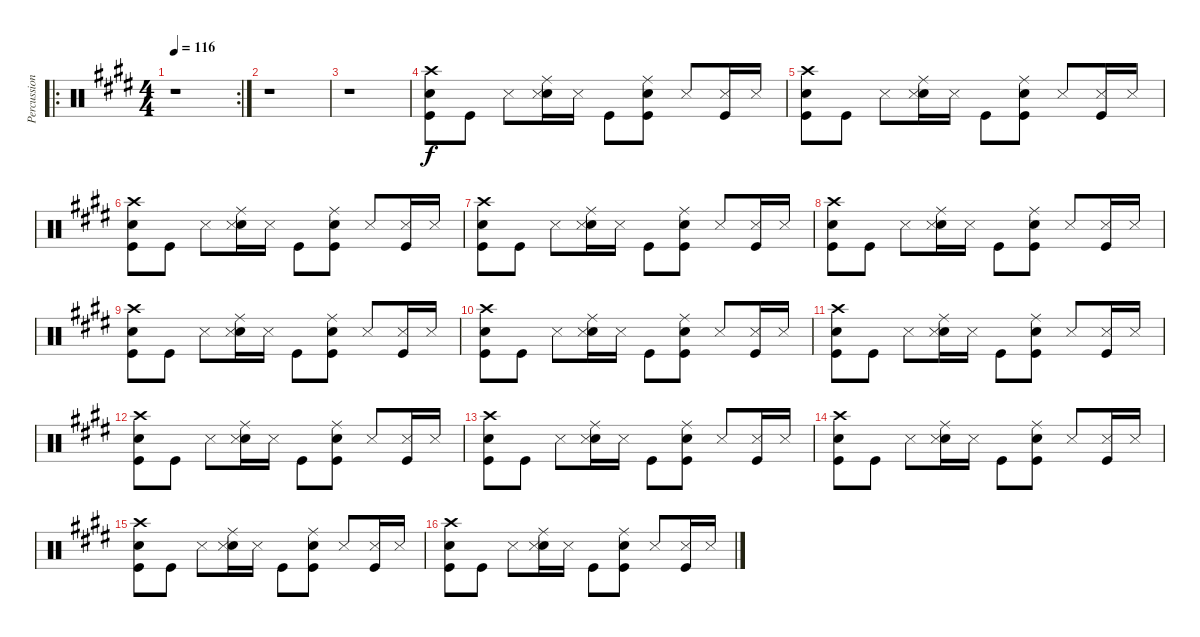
\track ("Percussion" "Percussion") {instrument percussion}
\staff {score}
\articulation defaults
\ro
\rc 2
\ts (4 4)
\tempo 116
\clef neutral
\ks e
r.1{dy f} |
r.1 |
r.1 |
("Crash high (hit)" "Electric Snare (hit)" "Kick (hit)").8 "Kick (hit)".8 "Snare (side stick) 3".8 ("Ride (middle)" "Electric Snare (hit)" "Snare (side stick) 3").16 "Snare (side stick) 3".16 "Kick (hit)".8 ("Ride (middle)" "Electric Snare (hit)" "Kick (hit)").8 "Snare (side stick) 3".8 ("Snare (side stick) 3" "Kick (hit)").16 "Snare (side stick) 3".16 |
("Crash high (hit)" "Electric Snare (hit)" "Kick (hit)").8 "Kick (hit)".8 "Snare (side stick) 3".8 ("Ride (middle)" "Electric Snare (hit)" "Snare (side stick) 3").16 "Snare (side stick) 3".16 "Kick (hit)".8 ("Ride (middle)" "Electric Snare (hit)" "Kick (hit)").8 "Snare (side stick) 3".8 ("Snare (side stick) 3" "Kick (hit)").16 "Snare (side stick) 3".16 |
("Crash high (hit)" "Electric Snare (hit)" "Kick (hit)").8 "Kick (hit)".8 "Snare (side stick) 3".8 ("Ride (middle)" "Electric Snare (hit)" "Snare (side stick) 3").16 "Snare (side stick) 3".16 "Kick (hit)".8 ("Ride (middle)" "Electric Snare (hit)" "Kick (hit)").8 "Snare (side stick) 3".8 ("Snare (side stick) 3" "Kick (hit)").16 "Snare (side stick) 3".16 |
("Crash high (hit)" "Electric Snare (hit)" "Kick (hit)").8 "Kick (hit)".8 "Snare (side stick) 3".8 ("Ride (middle)" "Electric Snare (hit)" "Snare (side stick) 3").16 "Snare (side stick) 3".16 "Kick (hit)".8 ("Ride (middle)" "Electric Snare (hit)" "Kick (hit)").8 "Snare (side stick) 3".8 ("Snare (side stick) 3" "Kick (hit)").16 "Snare (side stick) 3".16 |
("Crash high (hit)" "Electric Snare (hit)" "Kick (hit)").8 "Kick (hit)".8 "Snare (side stick) 3".8 ("Ride (middle)" "Electric Snare (hit)" "Snare (side stick) 3").16 "Snare (side stick) 3".16 "Kick (hit)".8 ("Ride (middle)" "Electric Snare (hit)" "Kick (hit)").8 "Snare (side stick) 3".8 ("Snare (side stick) 3" "Kick (hit)").16 "Snare (side stick) 3".16 |
("Crash high (hit)" "Electric Snare (hit)" "Kick (hit)").8 "Kick (hit)".8 "Snare (side stick) 3".8 ("Ride (middle)" "Electric Snare (hit)" "Snare (side stick) 3").16 "Snare (side stick) 3".16 "Kick (hit)".8 ("Ride (middle)" "Electric Snare (hit)" "Kick (hit)").8 "Snare (side stick) 3".8 ("Snare (side stick) 3" "Kick (hit)").16 "Snare (side stick) 3".16 |
("Crash high (hit)" "Electric Snare (hit)" "Kick (hit)").8 "Kick (hit)".8 "Snare (side stick) 3".8 ("Ride (middle)" "Electric Snare (hit)" "Snare (side stick) 3").16 "Snare (side stick) 3".16 "Kick (hit)".8 ("Ride (middle)" "Electric Snare (hit)" "Kick (hit)").8 "Snare (side stick) 3".8 ("Snare (side stick) 3" "Kick (hit)").16 "Snare (side stick) 3".16 |
("Crash high (hit)" "Electric Snare (hit)" "Kick (hit)").8 "Kick (hit)".8 "Snare (side stick) 3".8 ("Ride (middle)" "Electric Snare (hit)" "Snare (side stick) 3").16 "Snare (side stick) 3".16 "Kick (hit)".8 ("Ride (middle)" "Electric Snare (hit)" "Kick (hit)").8 "Snare (side stick) 3".8 ("Snare (side stick) 3" "Kick (hit)").16 "Snare (side stick) 3".16 |
("Crash high (hit)" "Electric Snare (hit)" "Kick (hit)").8 "Kick (hit)".8 "Snare (side stick) 3".8 ("Ride (middle)" "Electric Snare (hit)" "Snare (side stick) 3").16 "Snare (side stick) 3".16 "Kick (hit)".8 ("Ride (middle)" "Electric Snare (hit)" "Kick (hit)").8 "Snare (side stick) 3".8 ("Snare (side stick) 3" "Kick (hit)").16 "Snare (side stick) 3".16 |
("Crash high (hit)" "Electric Snare (hit)" "Kick (hit)").8 "Kick (hit)".8 "Snare (side stick) 3".8 ("Ride (middle)" "Electric Snare (hit)" "Snare (side stick) 3").16 "Snare (side stick) 3".16 "Kick (hit)".8 ("Ride (middle)" "Electric Snare (hit)" "Kick (hit)").8 "Snare (side stick) 3".8 ("Snare (side stick) 3" "Kick (hit)").16 "Snare (side stick) 3".16 |
("Crash high (hit)" "Electric Snare (hit)" "Kick (hit)").8 "Kick (hit)".8 "Snare (side stick) 3".8 ("Ride (middle)" "Electric Snare (hit)" "Snare (side stick) 3").16 "Snare (side stick) 3".16 "Kick (hit)".8 ("Ride (middle)" "Electric Snare (hit)" "Kick (hit)").8 "Snare (side stick) 3".8 ("Snare (side stick) 3" "Kick (hit)").16 "Snare (side stick) 3".16 |
("Crash high (hit)" "Electric Snare (hit)" "Kick (hit)").8 "Kick (hit)".8 "Snare (side stick) 3".8 ("Ride (middle)" "Electric Snare (hit)" "Snare (side stick) 3").16 "Snare (side stick) 3".16 "Kick (hit)".8 ("Ride (middle)" "Electric Snare (hit)" "Kick (hit)").8 "Snare (side stick) 3".8 ("Snare (side stick) 3" "Kick (hit)").16 "Snare (side stick) 3".16 |
("Crash high (hit)" "Electric Snare (hit)" "Kick (hit)").8 "Kick (hit)".8 "Snare (side stick) 3".8 ("Ride (middle)" "Electric Snare (hit)" "Snare (side stick) 3").16 "Snare (side stick) 3".16 "Kick (hit)".8 ("Ride (middle)" "Electric Snare (hit)" "Kick (hit)").8 "Snare (side stick) 3".8 ("Snare (side stick) 3" "Kick (hit)").16 "Snare (side stick) 3".16
